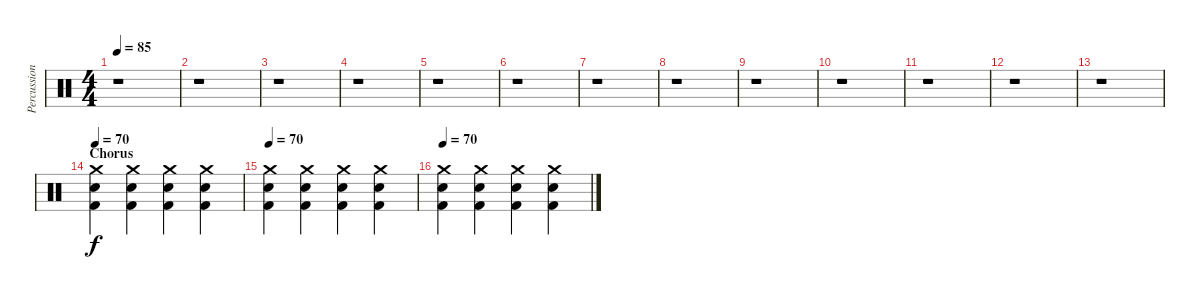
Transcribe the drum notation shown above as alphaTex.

\track ("Percussion" "Percussion") {instrument percussion}
\staff {score}
\articulation defaults
\ts (4 4)
\tempo 85
\clef neutral
\ks c
r.1{dy f} |
r.1 |
r.1 |
r.1 |
r.1 |
r.1 |
r.1 |
r.1 |
r.1 |
r.1 |
r.1 |
r.1 |
r.1 |
\section ("" "Chorus")
\tempo 70
("Crash medium (hit)" "Electric Snare (hit)" "Kick (hit) 2").4 ("Crash medium (hit)" "Electric Snare (hit)" "Kick (hit) 2").4 ("Crash medium (hit)" "Electric Snare (hit)" "Kick (hit) 2").4 ("Crash medium (hit)" "Electric Snare (hit)" "Kick (hit) 2").4 |
\tempo 70
("Crash medium (hit)" "Electric Snare (hit)" "Kick (hit) 2").4 ("Crash medium (hit)" "Electric Snare (hit)" "Kick (hit) 2").4 ("Crash medium (hit)" "Electric Snare (hit)" "Kick (hit) 2").4 ("Crash medium (hit)" "Electric Snare (hit)" "Kick (hit) 2").4 |
\tempo 70
("Crash medium (hit)" "Electric Snare (hit)" "Kick (hit) 2").4 ("Crash medium (hit)" "Electric Snare (hit)" "Kick (hit) 2").4 ("Crash medium (hit)" "Electric Snare (hit)" "Kick (hit) 2").4 ("Crash medium (hit)" "Electric Snare (hit)" "Kick (hit) 2").4
